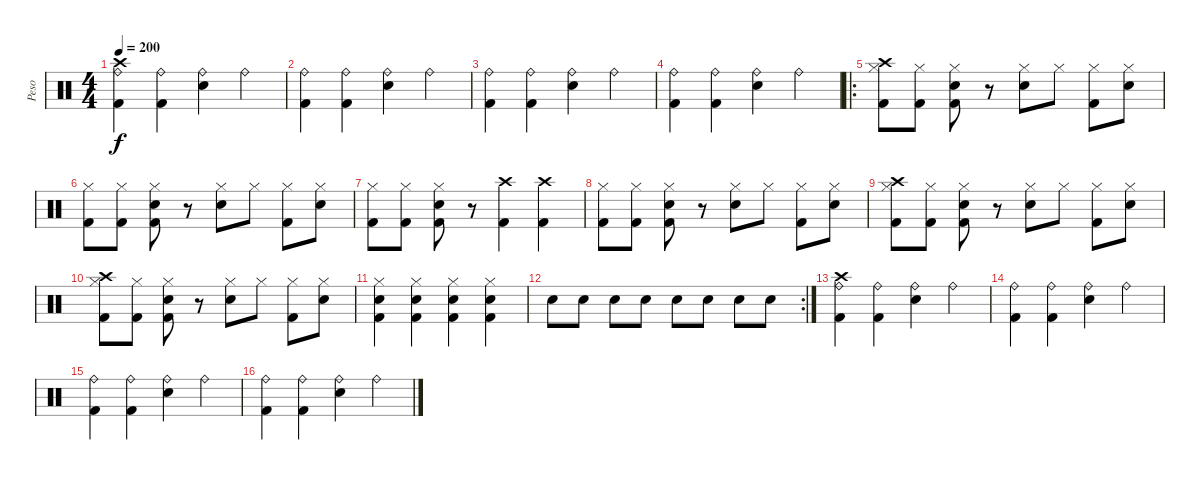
\track ("Peso" "Peso") {instrument percussion}
\staff {score}
\articulation defaults
\ts (4 4)
\tempo 200
\clef neutral
\ks c
("Crash high (hit)" "Ride (bell)" "Kick (hit) 2").4{dy f} ("Ride (bell)" "Kick (hit) 2").4 ("Ride (bell)" "Snare (hit) 2").4 "Ride (bell)".4 |
("Ride (bell)" "Kick (hit) 2").4 ("Ride (bell)" "Kick (hit) 2").4 ("Ride (bell)" "Snare (hit) 2").4 "Ride (bell)".4 |
("Ride (bell)" "Kick (hit) 2").4 ("Ride (bell)" "Kick (hit) 2").4 ("Ride (bell)" "Snare (hit) 2").4 "Ride (bell)".4 |
("Ride (bell)" "Kick (hit) 2").4 ("Ride (bell)" "Kick (hit) 2").4 ("Ride (bell)" "Snare (hit) 2").4 "Ride (bell)".4 |
\ro
("Crash high (hit)" "Hi-Hat (closed)" "Kick (hit) 2").8 ("Hi-Hat (closed)" "Kick (hit) 2").8 ("Hi-Hat (closed)" "Snare (hit) 2" "Kick (hit) 2").8 r.8 ("Hi-Hat (closed)" "Snare (hit) 2").8 "Hi-Hat (closed)".8 ("Hi-Hat (closed)" "Kick (hit) 2").8 ("Hi-Hat (closed)" "Snare (hit) 2").8 |
("Hi-Hat (closed)" "Kick (hit) 2").8 ("Hi-Hat (closed)" "Kick (hit) 2").8 ("Hi-Hat (closed)" "Snare (hit) 2" "Kick (hit) 2").8 r.8 ("Hi-Hat (closed)" "Snare (hit) 2").8 "Hi-Hat (closed)".8 ("Hi-Hat (closed)" "Kick (hit) 2").8 ("Hi-Hat (closed)" "Snare (hit) 2").8 |
("Hi-Hat (closed)" "Kick (hit) 2").8 ("Hi-Hat (closed)" "Kick (hit) 2").8 ("Hi-Hat (closed)" "Snare (hit) 2" "Kick (hit) 2").8 r.8 ("Crash high (hit)" "Kick (hit) 2").4 ("Crash high (hit)" "Kick (hit) 2").4 |
("Hi-Hat (closed)" "Kick (hit) 2").8 ("Hi-Hat (closed)" "Kick (hit) 2").8 ("Hi-Hat (closed)" "Snare (hit) 2" "Kick (hit) 2").8 r.8 ("Hi-Hat (closed)" "Snare (hit) 2").8 "Hi-Hat (closed)".8 ("Hi-Hat (closed)" "Kick (hit) 2").8 ("Hi-Hat (closed)" "Snare (hit) 2").8 |
("Crash high (hit)" "Hi-Hat (closed)" "Kick (hit) 2").8 ("Hi-Hat (closed)" "Kick (hit) 2").8 ("Hi-Hat (closed)" "Snare (hit) 2" "Kick (hit) 2").8 r.8 ("Hi-Hat (closed)" "Snare (hit) 2").8 "Hi-Hat (closed)".8 ("Hi-Hat (closed)" "Kick (hit) 2").8 ("Hi-Hat (closed)" "Snare (hit) 2").8 |
("Crash high (hit)" "Hi-Hat (closed)" "Kick (hit) 2").8 ("Hi-Hat (closed)" "Kick (hit) 2").8 ("Hi-Hat (closed)" "Snare (hit) 2" "Kick (hit) 2").8 r.8 ("Hi-Hat (closed)" "Snare (hit) 2").8 "Hi-Hat (closed)".8 ("Hi-Hat (closed)" "Kick (hit) 2").8 ("Hi-Hat (closed)" "Snare (hit) 2").8 |
("Hi-Hat (closed)" "Snare (hit) 2" "Kick (hit) 2").4 ("Hi-Hat (closed)" "Snare (hit) 2" "Kick (hit) 2").4 ("Hi-Hat (closed)" "Snare (hit) 2" "Kick (hit) 2").4 ("Hi-Hat (closed)" "Snare (hit) 2" "Kick (hit) 2").4 |
\rc 2 "Snare (hit) 2".8 "Snare (hit) 2".8 "Snare (hit) 2".8 "Snare (hit) 2".8 "Snare (hit) 2".8 "Snare (hit) 2".8 "Snare (hit) 2".8 "Snare (hit) 2".8
|
("Crash high (hit)" "Ride (bell)" "Kick (hit) 2").4 ("Ride (bell)" "Kick (hit) 2").4 ("Ride (bell)" "Snare (hit) 2").4 "Ride (bell)".4 |
("Ride (bell)" "Kick (hit) 2").4 ("Ride (bell)" "Kick (hit) 2").4 ("Ride (bell)" "Snare (hit) 2").4 "Ride (bell)".4 |
("Ride (bell)" "Kick (hit) 2").4 ("Ride (bell)" "Kick (hit) 2").4 ("Ride (bell)" "Snare (hit) 2").4 "Ride (bell)".4 |
("Ride (bell)" "Kick (hit) 2").4 ("Ride (bell)" "Kick (hit) 2").4 ("Ride (bell)" "Snare (hit) 2").4 "Ride (bell)".4
